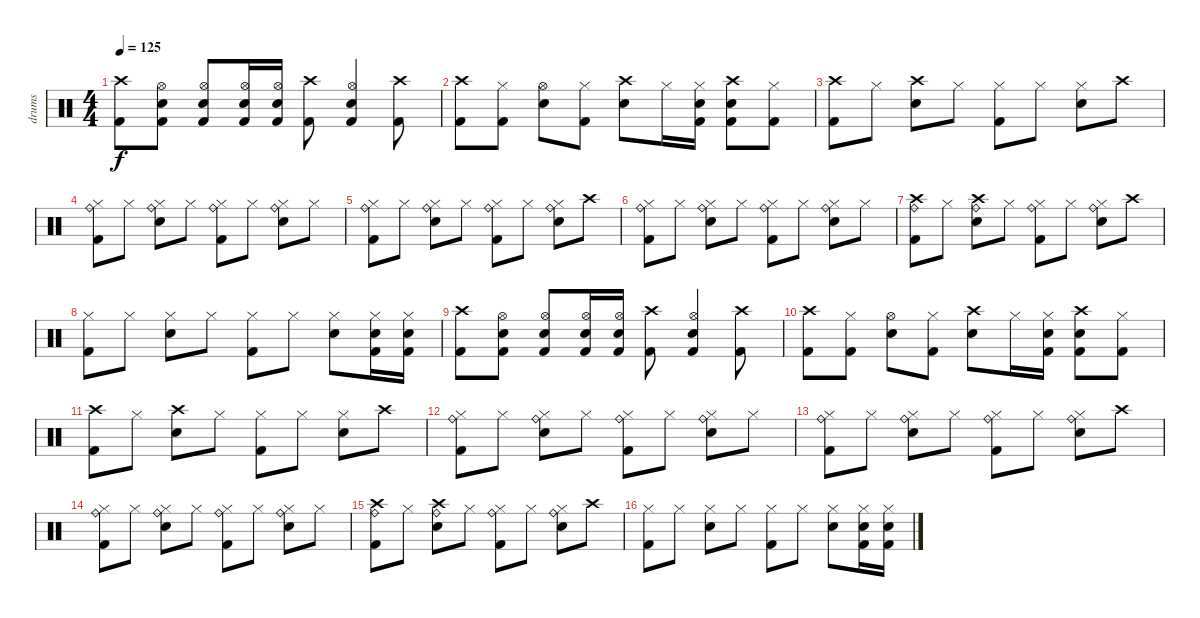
\track ("drums" "drums") {instrument percussion}
\staff {score}
\articulation defaults
\ts (4 4)
\tempo 125
\clef neutral
\ks c
("Crash high (hit)" "Kick (hit) 2").8{dy f} ("Hi-Hat (open)" "Snare (hit) 2" "Kick (hit) 2").8 ("Hi-Hat (open)" "Snare (hit) 2" "Kick (hit) 2").8 ("Hi-Hat (open)" "Snare (hit) 2" "Kick (hit) 2").16 ("Hi-Hat (open)" "Snare (hit) 2" "Kick (hit) 2").16 ("Crash high (hit)" "Kick (hit) 2").8 ("Hi-Hat (open)" "Snare (hit) 2" "Kick (hit) 2").4 ("Crash high (hit)" "Kick (hit) 2").8 |
("Crash high (hit)" "Kick (hit) 2").8 ("Hi-Hat (closed)" "Kick (hit) 2").8 ("Hi-Hat (open)" "Snare (hit) 2").8 ("Hi-Hat (closed)" "Kick (hit) 2").8 ("Crash high (hit)" "Snare (hit) 2").8 "Hi-Hat (closed)".16 ("Hi-Hat (closed)" "Snare (hit) 2" "Kick (hit) 2").16 ("Crash high (hit)" "Snare (hit) 2" "Kick (hit) 2").8 ("Hi-Hat (closed)" "Kick (hit) 2").8 |
("Crash high (hit)" "Kick (hit) 2").8 "Hi-Hat (closed)".8 ("Crash high (hit)" "Snare (hit) 2").8 "Hi-Hat (closed)".8 ("Hi-Hat (closed)" "Kick (hit) 2").8 "Hi-Hat (closed)".8 ("Hi-Hat (closed)" "Snare (hit) 2").8 "Crash high (hit)".8 |
("Hi-Hat (closed)" "Ride (bell)" "Kick (hit) 2").8 "Hi-Hat (closed)".8 ("Hi-Hat (closed)" "Snare (hit) 2" "Ride (bell)").8 "Hi-Hat (closed)".8 ("Hi-Hat (closed)" "Ride (bell)" "Kick (hit) 2").8 "Hi-Hat (closed)".8 ("Hi-Hat (closed)" "Snare (hit) 2" "Ride (bell)").8 "Hi-Hat (closed)".8 |
("Hi-Hat (closed)" "Ride (bell)" "Kick (hit) 2").8 "Hi-Hat (closed)".8 ("Hi-Hat (closed)" "Snare (hit) 2" "Ride (bell)").8 "Hi-Hat (closed)".8 ("Hi-Hat (closed)" "Ride (bell)" "Kick (hit) 2").8 "Hi-Hat (closed)".8 ("Hi-Hat (closed)" "Snare (hit) 2" "Ride (bell)").8 "Crash high (hit)".8 |
("Hi-Hat (closed)" "Ride (bell)" "Kick (hit) 2").8 "Hi-Hat (closed)".8 ("Hi-Hat (closed)" "Snare (hit) 2" "Ride (bell)").8 "Hi-Hat (closed)".8 ("Hi-Hat (closed)" "Ride (bell)" "Kick (hit) 2").8 "Hi-Hat (closed)".8 ("Hi-Hat (closed)" "Snare (hit) 2" "Ride (bell)").8 "Hi-Hat (closed)".8 |
("Crash high (hit)" "Ride (bell)" "Kick (hit) 2").8 "Hi-Hat (closed)".8 ("Crash high (hit)" "Snare (hit) 2" "Ride (bell)").8 "Hi-Hat (closed)".8 ("Hi-Hat (closed)" "Ride (bell)" "Kick (hit) 2").8 "Hi-Hat (closed)".8 ("Hi-Hat (closed)" "Snare (hit) 2" "Ride (bell)").8 "Crash high (hit)".8 |
("Hi-Hat (closed)" "Kick (hit) 2").8 "Hi-Hat (closed)".8 ("Hi-Hat (closed)" "Snare (hit) 2").8 "Hi-Hat (closed)".8 ("Hi-Hat (closed)" "Kick (hit) 2").8 "Hi-Hat (closed)".8 ("Hi-Hat (closed)" "Snare (hit) 2").8 ("Hi-Hat (closed)" "Snare (hit) 2" "Kick (hit) 2").16 ("Hi-Hat (closed)" "Snare (hit) 2" "Kick (hit) 2").16 |
("Crash high (hit)" "Kick (hit) 2").8 ("Hi-Hat (open)" "Snare (hit) 2" "Kick (hit) 2").8 ("Hi-Hat (open)" "Snare (hit) 2" "Kick (hit) 2").8 ("Hi-Hat (open)" "Snare (hit) 2" "Kick (hit) 2").16 ("Hi-Hat (open)" "Snare (hit) 2" "Kick (hit) 2").16 ("Crash high (hit)" "Kick (hit) 2").8 ("Hi-Hat (open)" "Snare (hit) 2" "Kick (hit) 2").4 ("Crash high (hit)" "Kick (hit) 2").8 |
("Crash high (hit)" "Kick (hit) 2").8 ("Hi-Hat (closed)" "Kick (hit) 2").8 ("Hi-Hat (open)" "Snare (hit) 2").8 ("Hi-Hat (closed)" "Kick (hit) 2").8 ("Crash high (hit)" "Snare (hit) 2").8 "Hi-Hat (closed)".16 ("Hi-Hat (closed)" "Snare (hit) 2" "Kick (hit) 2").16 ("Crash high (hit)" "Snare (hit) 2" "Kick (hit) 2").8 ("Hi-Hat (closed)" "Kick (hit) 2").8 |
("Crash high (hit)" "Kick (hit) 2").8 "Hi-Hat (closed)".8 ("Crash high (hit)" "Snare (hit) 2").8 "Hi-Hat (closed)".8 ("Hi-Hat (closed)" "Kick (hit) 2").8 "Hi-Hat (closed)".8 ("Hi-Hat (closed)" "Snare (hit) 2").8 "Crash high (hit)".8 |
("Hi-Hat (closed)" "Ride (bell)" "Kick (hit) 2").8 "Hi-Hat (closed)".8 ("Hi-Hat (closed)" "Snare (hit) 2" "Ride (bell)").8 "Hi-Hat (closed)".8 ("Hi-Hat (closed)" "Ride (bell)" "Kick (hit) 2").8 "Hi-Hat (closed)".8 ("Hi-Hat (closed)" "Snare (hit) 2" "Ride (bell)").8 "Hi-Hat (closed)".8 |
("Hi-Hat (closed)" "Ride (bell)" "Kick (hit) 2").8 "Hi-Hat (closed)".8 ("Hi-Hat (closed)" "Snare (hit) 2" "Ride (bell)").8 "Hi-Hat (closed)".8 ("Hi-Hat (closed)" "Ride (bell)" "Kick (hit) 2").8 "Hi-Hat (closed)".8 ("Hi-Hat (closed)" "Snare (hit) 2" "Ride (bell)").8 "Crash high (hit)".8 |
("Hi-Hat (closed)" "Ride (bell)" "Kick (hit) 2").8 "Hi-Hat (closed)".8 ("Hi-Hat (closed)" "Snare (hit) 2" "Ride (bell)").8 "Hi-Hat (closed)".8 ("Hi-Hat (closed)" "Ride (bell)" "Kick (hit) 2").8 "Hi-Hat (closed)".8 ("Hi-Hat (closed)" "Snare (hit) 2" "Ride (bell)").8 "Hi-Hat (closed)".8 |
("Crash high (hit)" "Ride (bell)" "Kick (hit) 2").8 "Hi-Hat (closed)".8 ("Crash high (hit)" "Snare (hit) 2" "Ride (bell)").8 "Hi-Hat (closed)".8 ("Hi-Hat (closed)" "Ride (bell)" "Kick (hit) 2").8 "Hi-Hat (closed)".8 ("Hi-Hat (closed)" "Snare (hit) 2" "Ride (bell)").8 "Crash high (hit)".8 |
("Hi-Hat (closed)" "Kick (hit) 2").8 "Hi-Hat (closed)".8 ("Hi-Hat (closed)" "Snare (hit) 2").8 "Hi-Hat (closed)".8 ("Hi-Hat (closed)" "Kick (hit) 2").8 "Hi-Hat (closed)".8 ("Hi-Hat (closed)" "Snare (hit) 2").8 ("Hi-Hat (closed)" "Snare (hit) 2" "Kick (hit) 2").16 ("Hi-Hat (closed)" "Snare (hit) 2" "Kick (hit) 2").16
